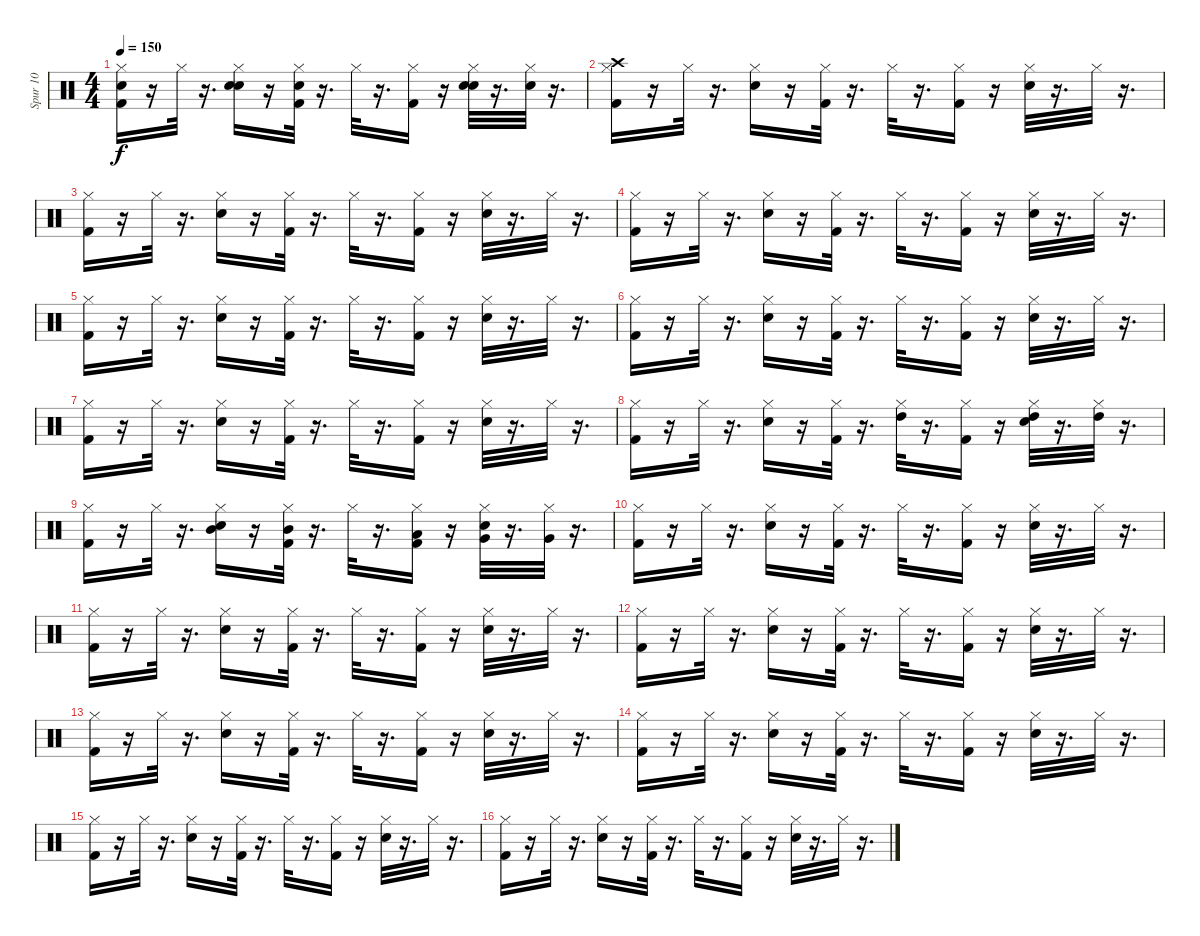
\track ("Spur 10" "Spur 10") {instrument percussion}
\staff {score}
\articulation defaults
\ts (4 4)
\tempo 150
\clef neutral
\ks c
("Hand Clap (hit)" "Kick (hit) 2" "Hi-Hat (closed)").16{dy f} r.16 "Hi-Hat (closed)".32 r.16{d} ("Electric Snare (hit)" "Hi-Hat (closed)" "Hand Clap (hit)").16 r.16 ("Kick (hit) 2" "Hand Clap (hit)" "Hi-Hat (closed)").32 r.16{d} "Hi-Hat (closed)".32 r.16{d} ("Kick (hit) 2" "Hi-Hat (closed)").16 r.16 ("Electric Snare (hit)" "Hi-Hat (closed)" "Hand Clap (hit)").32 r.16{d} ("Hi-Hat (closed)" "Hand Clap (hit)").32 r.16{d} |
("Hi-Hat (closed)" "Crash high (hit)" "Kick (hit) 2").16 r.16 "Hi-Hat (closed)".32 r.16{d} ("Electric Snare (hit)" "Hi-Hat (closed)").16 r.16 ("Hi-Hat (closed)" "Kick (hit) 2").32 r.16{d} "Hi-Hat (closed)".32 r.16{d} ("Hi-Hat (closed)" "Kick (hit) 2").16 r.16 ("Electric Snare (hit)" "Hi-Hat (closed)").32 r.16{d} "Hi-Hat (closed)".32 r.16{d} |
("Hi-Hat (closed)" "Kick (hit) 2").16 r.16 "Hi-Hat (closed)".32 r.16{d} ("Electric Snare (hit)" "Hi-Hat (closed)").16 r.16 ("Kick (hit) 2" "Hi-Hat (closed)").32 r.16{d} "Hi-Hat (closed)".32 r.16{d} ("Kick (hit) 2" "Hi-Hat (closed)").16 r.16 ("Electric Snare (hit)" "Hi-Hat (closed)").32 r.16{d} "Hi-Hat (closed)".32 r.16{d} |
("Kick (hit) 2" "Hi-Hat (closed)").16 r.16 "Hi-Hat (closed)".32 r.16{d} ("Electric Snare (hit)" "Hi-Hat (closed)").16 r.16 ("Kick (hit) 2" "Hi-Hat (closed)").32 r.16{d} "Hi-Hat (closed)".32 r.16{d} ("Kick (hit) 2" "Hi-Hat (closed)").16 r.16 ("Electric Snare (hit)" "Hi-Hat (closed)").32 r.16{d} "Hi-Hat (closed)".32 r.16{d} |
("Kick (hit) 2" "Hi-Hat (closed)").16 r.16 "Hi-Hat (closed)".32 r.16{d} ("Electric Snare (hit)" "Hi-Hat (closed)").16 r.16 ("Kick (hit) 2" "Hi-Hat (closed)").32 r.16{d} "Hi-Hat (closed)".32 r.16{d} ("Kick (hit) 2" "Hi-Hat (closed)").16 r.16 ("Electric Snare (hit)" "Hi-Hat (closed)").32 r.16{d} "Hi-Hat (closed)".32 r.16{d} |
("Hi-Hat (closed)" "Kick (hit) 2").16 r.16 "Hi-Hat (closed)".32 r.16{d} ("Electric Snare (hit)" "Hi-Hat (closed)").16 r.16 ("Hi-Hat (closed)" "Kick (hit) 2").32 r.16{d} "Hi-Hat (closed)".32 r.16{d} ("Hi-Hat (closed)" "Kick (hit) 2").16 r.16 ("Hi-Hat (closed)" "Electric Snare (hit)").32 r.16{d} "Hi-Hat (closed)".32 r.16{d} |
("Hi-Hat (closed)" "Kick (hit) 2").16 r.16 "Hi-Hat (closed)".32 r.16{d} ("Electric Snare (hit)" "Hi-Hat (closed)").16 r.16 ("Kick (hit) 2" "Hi-Hat (closed)").32 r.16{d} "Hi-Hat (closed)".32 r.16{d} ("Kick (hit) 2" "Hi-Hat (closed)").16 r.16 ("Electric Snare (hit)" "Hi-Hat (closed)").32 r.16{d} "Hi-Hat (closed)".32 r.16{d} |
("Kick (hit) 2" "Hi-Hat (closed)").16 r.16 "Hi-Hat (closed)".32 r.16{d} ("Electric Snare (hit)" "Hi-Hat (closed)").16 r.16 ("Kick (hit) 2" "Hi-Hat (closed)").32 r.16{d} ("Hi-Hat (closed)" "High Tom (hit)").32 r.16{d} ("Kick (hit) 2" "Hi-Hat (closed)").16 r.16 ("Electric Snare (hit)" "High Tom (hit)" "Hi-Hat (closed)").32 r.16{d} ("Hi-Hat (closed)" "High Tom (hit)").32 r.16{d} |
("Hi-Hat (closed)" "Kick (hit) 2").16 r.16 "Hi-Hat (closed)".32 r.16{d} ("Electric Snare (hit)" "Hi-Hat (closed)" "Mid Tom (hit)").16 r.16 ("Kick (hit) 2" "Mid Tom (hit)" "Hi-Hat (closed)").32 r.16{d} "Hi-Hat (closed)".32 r.16{d} ("Kick (hit) 2" "Low Tom (hit)" "Hi-Hat (closed)").16 r.16 ("Electric Snare (hit)" "Very Low Tom (hit)" "Hi-Hat (closed)").32 r.16{d} ("Very Low Tom (hit)" "Hi-Hat (closed)").32 r.16{d} |
("Hi-Hat (closed)" "Kick (hit) 2").16 r.16 "Hi-Hat (closed)".32 r.16{d} ("Hi-Hat (closed)" "Electric Snare (hit)").16 r.16 ("Hi-Hat (closed)" "Kick (hit) 2").32 r.16{d} "Hi-Hat (closed)".32 r.16{d} ("Hi-Hat (closed)" "Kick (hit) 2").16 r.16 ("Hi-Hat (closed)" "Electric Snare (hit)").32 r.16{d} "Hi-Hat (closed)".32 r.16{d} |
("Hi-Hat (closed)" "Kick (hit) 2").16 r.16 "Hi-Hat (closed)".32 r.16{d} ("Electric Snare (hit)" "Hi-Hat (closed)").16 r.16 ("Kick (hit) 2" "Hi-Hat (closed)").32 r.16{d} "Hi-Hat (closed)".32 r.16{d} ("Kick (hit) 2" "Hi-Hat (closed)").16 r.16 ("Electric Snare (hit)" "Hi-Hat (closed)").32 r.16{d} "Hi-Hat (closed)".32 r.16{d} |
("Kick (hit) 2" "Hi-Hat (closed)").16 r.16 "Hi-Hat (closed)".32 r.16{d} ("Electric Snare (hit)" "Hi-Hat (closed)").16 r.16 ("Kick (hit) 2" "Hi-Hat (closed)").32 r.16{d} "Hi-Hat (closed)".32 r.16{d} ("Kick (hit) 2" "Hi-Hat (closed)").16 r.16 ("Electric Snare (hit)" "Hi-Hat (closed)").32 r.16{d} "Hi-Hat (closed)".32 r.16{d} |
("Kick (hit) 2" "Hi-Hat (closed)").16 r.16 "Hi-Hat (closed)".32 r.16{d} ("Electric Snare (hit)" "Hi-Hat (closed)").16 r.16 ("Kick (hit) 2" "Hi-Hat (closed)").32 r.16{d} "Hi-Hat (closed)".32 r.16{d} ("Kick (hit) 2" "Hi-Hat (closed)").16 r.16 ("Electric Snare (hit)" "Hi-Hat (closed)").32 r.16{d} "Hi-Hat (closed)".32 r.16{d} |
("Hi-Hat (closed)" "Kick (hit) 2").16 r.16 "Hi-Hat (closed)".32 r.16{d} ("Electric Snare (hit)" "Hi-Hat (closed)").16 r.16 ("Hi-Hat (closed)" "Kick (hit) 2").32 r.16{d} "Hi-Hat (closed)".32 r.16{d} ("Hi-Hat (closed)" "Kick (hit) 2").16 r.16 ("Hi-Hat (closed)" "Electric Snare (hit)").32 r.16{d} "Hi-Hat (closed)".32 r.16{d} |
("Kick (hit) 2" "Hi-Hat (closed)").16 r.16 "Hi-Hat (closed)".32 r.16{d} ("Electric Snare (hit)" "Hi-Hat (closed)").16 r.16 ("Kick (hit) 2" "Hi-Hat (closed)").32 r.16{d} "Hi-Hat (closed)".32 r.16{d} ("Kick (hit) 2" "Hi-Hat (closed)").16 r.16 ("Electric Snare (hit)" "Hi-Hat (closed)").32 r.16{d} "Hi-Hat (closed)".32 r.16{d} |
("Kick (hit) 2" "Hi-Hat (closed)").16 r.16 "Hi-Hat (closed)".32 r.16{d} ("Electric Snare (hit)" "Hi-Hat (closed)").16 r.16 ("Kick (hit) 2" "Hi-Hat (closed)").32 r.16{d} "Hi-Hat (closed)".32 r.16{d} ("Kick (hit) 2" "Hi-Hat (closed)").16 r.16 ("Electric Snare (hit)" "Hi-Hat (closed)").32 r.16{d} "Hi-Hat (closed)".32 r.16{d}
